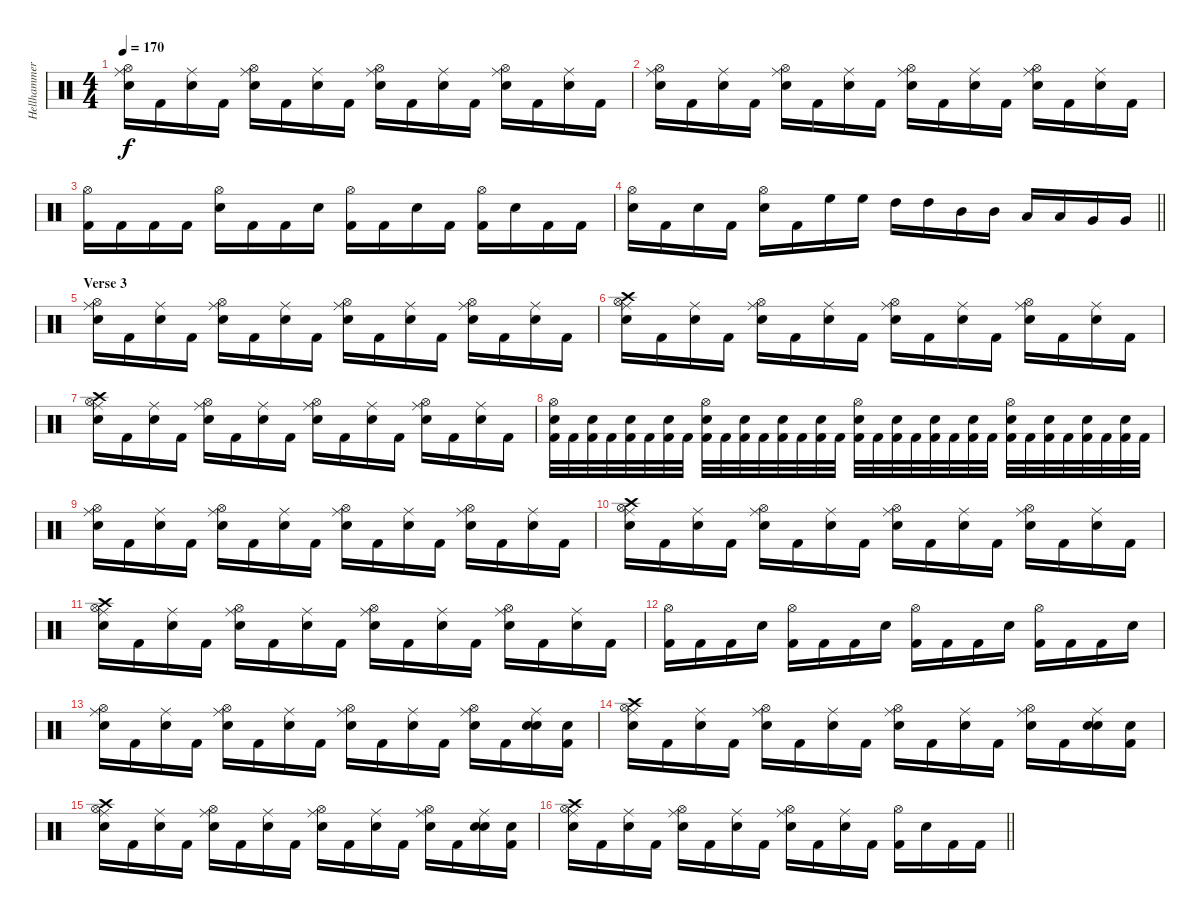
\track ("Hellhammer" "Hellhammer") {instrument percussion}
\staff {score}
\articulation defaults
\ts (4 4)
\section ("" " ")
\tempo 170
\clef neutral
\ks c
("Hi-Hat (open)" "Ride (middle)" "Electric Snare (hit)").16{dy f} "Kick (hit) 2".16 ("Ride (middle)" "Electric Snare (hit)").16 "Kick (hit) 2".16 ("Hi-Hat (open)" "Ride (middle)" "Electric Snare (hit)").16 "Kick (hit) 2".16 ("Ride (middle)" "Electric Snare (hit)").16 "Kick (hit) 2".16 ("Hi-Hat (open)" "Ride (middle)" "Electric Snare (hit)").16 "Kick (hit) 2".16 ("Ride (middle)" "Electric Snare (hit)").16 "Kick (hit) 2".16 ("Hi-Hat (open)" "Ride (middle)" "Electric Snare (hit)").16 "Kick (hit) 2".16 ("Ride (middle)" "Electric Snare (hit)").16 "Kick (hit) 2".16 |
("Hi-Hat (open)" "Ride (middle)" "Electric Snare (hit)").16 "Kick (hit) 2".16 ("Ride (middle)" "Electric Snare (hit)").16 "Kick (hit) 2".16 ("Hi-Hat (open)" "Ride (middle)" "Electric Snare (hit)").16 "Kick (hit) 2".16 ("Ride (middle)" "Electric Snare (hit)").16 "Kick (hit) 2".16 ("Hi-Hat (open)" "Ride (middle)" "Electric Snare (hit)").16 "Kick (hit) 2".16 ("Ride (middle)" "Electric Snare (hit)").16 "Kick (hit) 2".16 ("Hi-Hat (open)" "Ride (middle)" "Electric Snare (hit)").16 "Kick (hit) 2".16 ("Ride (middle)" "Electric Snare (hit)").16 "Kick (hit) 2".16 |
("Hi-Hat (open)" "Kick (hit) 2").16 "Kick (hit) 2".16 "Kick (hit) 2".16 "Kick (hit) 2".16 ("Hi-Hat (open)" "Snare (hit) 2").16 "Kick (hit) 2".16 "Kick (hit) 2".16 "Snare (hit) 2".16 ("Hi-Hat (open)" "Kick (hit) 2").16 "Kick (hit) 2".16 "Snare (hit) 2".16 "Kick (hit) 2".16 ("Hi-Hat (open)" "Kick (hit) 2").16 "Snare (hit) 2".16 "Kick (hit) 2".16 "Kick (hit) 2".16 |
\barLineRight lightlight
("Hi-Hat (open)" "Snare (hit) 2").16 "Kick (hit) 2".16 "Snare (hit) 2".16 "Kick (hit) 2".16 ("Hi-Hat (open)" "Snare (hit) 2").16 "Kick (hit) 2".16 "High Floor Tom (hit)".16 "High Floor Tom (hit)".16 "High Tom (hit)".16 "High Tom (hit)".16 "Mid Tom (hit)".16 "Mid Tom (hit)".16 "Low Tom (hit)".16 "Low Tom (hit)".16 "Very Low Tom (hit)".16 "Very Low Tom (hit)".16 |
\section ("" "Verse 3")
("Hi-Hat (open)" "Ride (middle)" "Electric Snare (hit)").16 "Kick (hit) 2".16 ("Ride (middle)" "Electric Snare (hit)").16 "Kick (hit) 2".16 ("Hi-Hat (open)" "Ride (middle)" "Electric Snare (hit)").16 "Kick (hit) 2".16 ("Ride (middle)" "Electric Snare (hit)").16 "Kick (hit) 2".16 ("Hi-Hat (open)" "Ride (middle)" "Electric Snare (hit)").16 "Kick (hit) 2".16 ("Ride (middle)" "Electric Snare (hit)").16 "Kick (hit) 2".16 ("Hi-Hat (open)" "Ride (middle)" "Electric Snare (hit)").16 "Kick (hit) 2".16 ("Ride (middle)" "Electric Snare (hit)").16 "Kick (hit) 2".16 |
("Crash high (hit)" "Hi-Hat (open)" "Ride (middle)" "Electric Snare (hit)").16 "Kick (hit) 2".16 ("Ride (middle)" "Electric Snare (hit)").16 "Kick (hit) 2".16 ("Hi-Hat (open)" "Ride (middle)" "Electric Snare (hit)").16 "Kick (hit) 2".16 ("Ride (middle)" "Electric Snare (hit)").16 "Kick (hit) 2".16 ("Hi-Hat (open)" "Ride (middle)" "Electric Snare (hit)").16 "Kick (hit) 2".16 ("Ride (middle)" "Electric Snare (hit)").16 "Kick (hit) 2".16 ("Hi-Hat (open)" "Ride (middle)" "Electric Snare (hit)").16 "Kick (hit) 2".16 ("Ride (middle)" "Electric Snare (hit)").16 "Kick (hit) 2".16 |
("Crash high (hit)" "Hi-Hat (open)" "Ride (middle)" "Electric Snare (hit)").16 "Kick (hit) 2".16 ("Ride (middle)" "Electric Snare (hit)").16 "Kick (hit) 2".16 ("Hi-Hat (open)" "Ride (middle)" "Electric Snare (hit)").16 "Kick (hit) 2".16 ("Ride (middle)" "Electric Snare (hit)").16 "Kick (hit) 2".16 ("Hi-Hat (open)" "Ride (middle)" "Electric Snare (hit)").16 "Kick (hit) 2".16 ("Ride (middle)" "Electric Snare (hit)").16 "Kick (hit) 2".16 ("Hi-Hat (open)" "Ride (middle)" "Electric Snare (hit)").16 "Kick (hit) 2".16 ("Ride (middle)" "Electric Snare (hit)").16 "Kick (hit) 2".16 |
("Hi-Hat (open)" "Snare (hit) 2" "Kick (hit) 2").32 "Kick (hit) 2".32 ("Snare (hit) 2" "Kick (hit) 2").32 "Kick (hit) 2".32 ("Snare (hit) 2" "Kick (hit) 2").32 "Kick (hit) 2".32 ("Snare (hit) 2" "Kick (hit) 2").32 "Kick (hit) 2".32 ("Hi-Hat (open)" "Snare (hit) 2" "Kick (hit) 2").32 "Kick (hit) 2".32 ("Snare (hit) 2" "Kick (hit) 2").32 "Kick (hit) 2".32 ("Snare (hit) 2" "Kick (hit) 2").32 "Kick (hit) 2".32 ("Snare (hit) 2" "Kick (hit) 2").32 "Kick (hit) 2".32 ("Hi-Hat (open)" "Snare (hit) 2" "Kick (hit) 2").32 "Kick (hit) 2".32 ("Snare (hit) 2" "Kick (hit) 2").32 "Kick (hit) 2".32 ("Snare (hit) 2" "Kick (hit) 2").32 "Kick (hit) 2".32 ("Snare (hit) 2" "Kick (hit) 2").32 "Kick (hit) 2".32 ("Hi-Hat (open)" "Snare (hit) 2" "Kick (hit) 2").32 "Kick (hit) 2".32 ("Snare (hit) 2" "Kick (hit) 2").32 "Kick (hit) 2".32 ("Snare (hit) 2" "Kick (hit) 2").32 "Kick (hit) 2".32 ("Snare (hit) 2" "Kick (hit) 2").32 "Kick (hit) 2".32 |
("Hi-Hat (open)" "Ride (middle)" "Electric Snare (hit)").16 "Kick (hit) 2".16 ("Ride (middle)" "Electric Snare (hit)").16 "Kick (hit) 2".16 ("Hi-Hat (open)" "Ride (middle)" "Electric Snare (hit)").16 "Kick (hit) 2".16 ("Ride (middle)" "Electric Snare (hit)").16 "Kick (hit) 2".16 ("Hi-Hat (open)" "Ride (middle)" "Electric Snare (hit)").16 "Kick (hit) 2".16 ("Ride (middle)" "Electric Snare (hit)").16 "Kick (hit) 2".16 ("Hi-Hat (open)" "Ride (middle)" "Electric Snare (hit)").16 "Kick (hit) 2".16 ("Ride (middle)" "Electric Snare (hit)").16 "Kick (hit) 2".16 |
("Crash high (hit)" "Hi-Hat (open)" "Ride (middle)" "Electric Snare (hit)").16 "Kick (hit) 2".16 ("Ride (middle)" "Electric Snare (hit)").16 "Kick (hit) 2".16 ("Hi-Hat (open)" "Ride (middle)" "Electric Snare (hit)").16 "Kick (hit) 2".16 ("Ride (middle)" "Electric Snare (hit)").16 "Kick (hit) 2".16 ("Hi-Hat (open)" "Ride (middle)" "Electric Snare (hit)").16 "Kick (hit) 2".16 ("Ride (middle)" "Electric Snare (hit)").16 "Kick (hit) 2".16 ("Hi-Hat (open)" "Ride (middle)" "Electric Snare (hit)").16 "Kick (hit) 2".16 ("Ride (middle)" "Electric Snare (hit)").16 "Kick (hit) 2".16 |
("Crash high (hit)" "Hi-Hat (open)" "Ride (middle)" "Electric Snare (hit)").16 "Kick (hit) 2".16 ("Ride (middle)" "Electric Snare (hit)").16 "Kick (hit) 2".16 ("Hi-Hat (open)" "Ride (middle)" "Electric Snare (hit)").16 "Kick (hit) 2".16 ("Ride (middle)" "Electric Snare (hit)").16 "Kick (hit) 2".16 ("Hi-Hat (open)" "Ride (middle)" "Electric Snare (hit)").16 "Kick (hit) 2".16 ("Ride (middle)" "Electric Snare (hit)").16 "Kick (hit) 2".16 ("Hi-Hat (open)" "Ride (middle)" "Electric Snare (hit)").16 "Kick (hit) 2".16 ("Ride (middle)" "Electric Snare (hit)").16 "Kick (hit) 2".16 |
("Hi-Hat (open)" "Kick (hit) 2").16 "Kick (hit) 2".16 "Kick (hit) 2".16 "Snare (hit) 2".16 ("Hi-Hat (open)" "Kick (hit) 2").16 "Kick (hit) 2".16 "Kick (hit) 2".16 "Snare (hit) 2".16 ("Hi-Hat (open)" "Kick (hit) 2").16 "Kick (hit) 2".16 "Kick (hit) 2".16 "Snare (hit) 2".16 ("Hi-Hat (open)" "Kick (hit) 2").16 "Kick (hit) 2".16 "Kick (hit) 2".16 "Snare (hit) 2".16 |
("Hi-Hat (open)" "Ride (middle)" "Electric Snare (hit)").16 "Kick (hit) 2".16 ("Ride (middle)" "Electric Snare (hit)").16 "Kick (hit) 2".16 ("Hi-Hat (open)" "Ride (middle)" "Electric Snare (hit)").16 "Kick (hit) 2".16 ("Ride (middle)" "Electric Snare (hit)").16 "Kick (hit) 2".16 ("Hi-Hat (open)" "Ride (middle)" "Electric Snare (hit)").16 "Kick (hit) 2".16 ("Ride (middle)" "Electric Snare (hit)").16 "Kick (hit) 2".16 ("Hi-Hat (open)" "Ride (middle)" "Electric Snare (hit)").16 "Kick (hit) 2".16 ("Snare (hit) 2" "Ride (middle)" "Electric Snare (hit)").16 ("Snare (hit) 2" "Kick (hit) 2").16 |
("Crash high (hit)" "Hi-Hat (open)" "Ride (middle)" "Electric Snare (hit)").16 "Kick (hit) 2".16 ("Ride (middle)" "Electric Snare (hit)").16 "Kick (hit) 2".16 ("Hi-Hat (open)" "Ride (middle)" "Electric Snare (hit)").16 "Kick (hit) 2".16 ("Ride (middle)" "Electric Snare (hit)").16 "Kick (hit) 2".16 ("Hi-Hat (open)" "Ride (middle)" "Electric Snare (hit)").16 "Kick (hit) 2".16 ("Ride (middle)" "Electric Snare (hit)").16 "Kick (hit) 2".16 ("Hi-Hat (open)" "Ride (middle)" "Electric Snare (hit)").16 "Kick (hit) 2".16 ("Snare (hit) 2" "Ride (middle)" "Electric Snare (hit)").16 ("Snare (hit) 2" "Kick (hit) 2").16 |
("Crash high (hit)" "Hi-Hat (open)" "Ride (middle)" "Electric Snare (hit)").16 "Kick (hit) 2".16 ("Ride (middle)" "Electric Snare (hit)").16 "Kick (hit) 2".16 ("Hi-Hat (open)" "Ride (middle)" "Electric Snare (hit)").16 "Kick (hit) 2".16 ("Ride (middle)" "Electric Snare (hit)").16 "Kick (hit) 2".16 ("Hi-Hat (open)" "Ride (middle)" "Electric Snare (hit)").16 "Kick (hit) 2".16 ("Ride (middle)" "Electric Snare (hit)").16 "Kick (hit) 2".16 ("Hi-Hat (open)" "Ride (middle)" "Electric Snare (hit)").16 "Kick (hit) 2".16 ("Snare (hit) 2" "Ride (middle)" "Electric Snare (hit)").16 ("Snare (hit) 2" "Kick (hit) 2").16 |
\barLineRight lightlight
("Crash high (hit)" "Hi-Hat (open)" "Ride (middle)" "Electric Snare (hit)").16 "Kick (hit) 2".16 ("Ride (middle)" "Electric Snare (hit)").16 "Kick (hit) 2".16 ("Hi-Hat (open)" "Ride (middle)" "Electric Snare (hit)").16 "Kick (hit) 2".16 ("Ride (middle)" "Electric Snare (hit)").16 "Kick (hit) 2".16 ("Hi-Hat (open)" "Ride (middle)" "Electric Snare (hit)").16 "Kick (hit) 2".16 ("Ride (middle)" "Electric Snare (hit)").16 "Kick (hit) 2".16 ("Hi-Hat (open)" "Kick (hit) 2").16 "Snare (hit) 2".16 "Kick (hit) 2".16 "Kick (hit) 2".16
